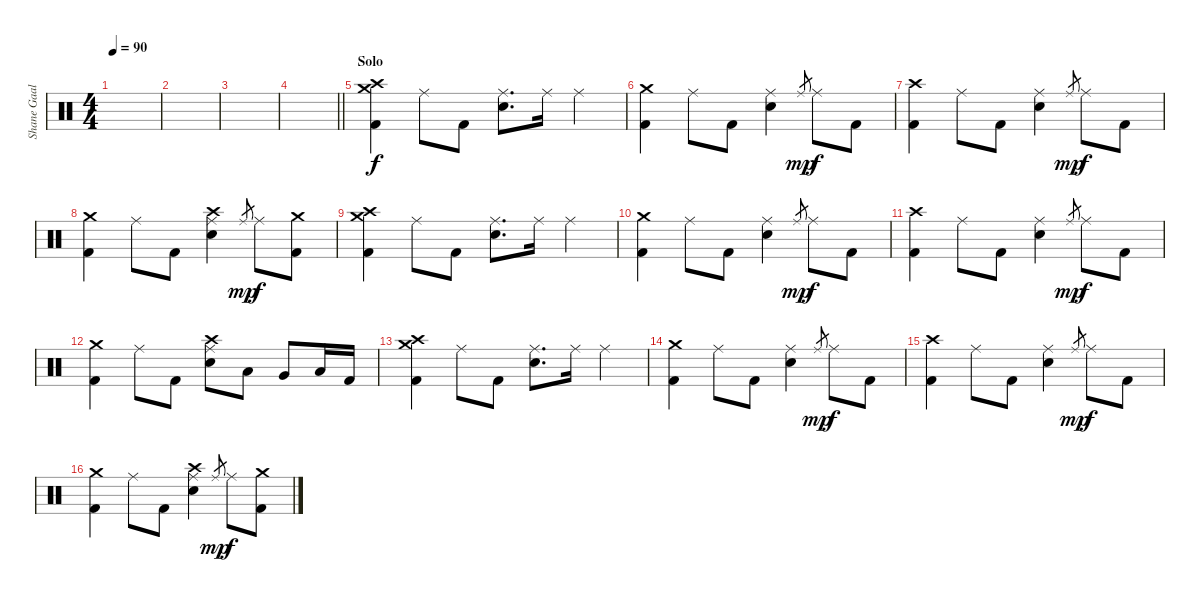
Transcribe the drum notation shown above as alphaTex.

\track ("Shane Gaalaas" "Shane Gaal") {instrument percussion}
\staff {score}
\articulation defaults
\ts (4 4)
\tempo 90
\clef neutral
\ks c
|
|
|
\barLineRight lightlight
|
\section ("" "Solo")
("Crash medium (hit)" "Crash high (hit)" "Kick (hit) 2").4 "Ride (middle)".8 "Kick (hit) 2".8 ("Ride (middle)" "Electric Snare (hit)").8{d} "Ride (middle)".16 "Ride (middle)".4 |
("Crash medium (hit)" "Kick (hit) 2").4 "Ride (middle)".8 "Kick (hit) 2".8 ("Ride (middle)" "Electric Snare (hit)").4 "Ride (middle)".8{gr dy mp} "Ride (middle)".8{dy f} "Kick (hit) 2".8 |
("Crash high (hit)" "Kick (hit) 2").4 "Ride (middle)".8 "Kick (hit) 2".8 ("Ride (middle)" "Electric Snare (hit)").4 "Ride (middle)".8{gr dy mp} "Ride (middle)".8{dy f} "Kick (hit) 2".8 |
("Crash medium (hit)" "Kick (hit) 2").4 "Ride (middle)".8 "Kick (hit) 2".8 ("Crash high (hit)" "Ride (middle)" "Electric Snare (hit)").4 "Ride (middle)".8{gr dy mp} "Ride (middle)".8{dy f} ("Crash medium (hit)" "Kick (hit) 2").8 |
("Crash medium (hit)" "Crash high (hit)" "Kick (hit) 2").4 "Ride (middle)".8 "Kick (hit) 2".8 ("Ride (middle)" "Electric Snare (hit)").8{d} "Ride (middle)".16 "Ride (middle)".4 |
("Crash medium (hit)" "Kick (hit) 2").4 "Ride (middle)".8 "Kick (hit) 2".8 ("Ride (middle)" "Electric Snare (hit)").4 "Ride (middle)".8{gr dy mp} "Ride (middle)".8{dy f} "Kick (hit) 2".8 |
("Crash high (hit)" "Kick (hit) 2").4 "Ride (middle)".8 "Kick (hit) 2".8 ("Ride (middle)" "Electric Snare (hit)").4 "Ride (middle)".8{gr dy mp} "Ride (middle)".8{dy f} "Kick (hit) 2".8 |
("Crash medium (hit)" "Kick (hit) 2").4 "Ride (middle)".8 "Kick (hit) 2".8 ("Crash high (hit)" "Ride (middle)" "Electric Snare (hit)").8 "Low Tom (hit)".8 "Very Low Tom (hit)".8 "Low Floor Tom (hit)".16 "Kick (hit) 2".16 |
("Crash medium (hit)" "Crash high (hit)" "Kick (hit) 2").4 "Ride (middle)".8 "Kick (hit) 2".8 ("Ride (middle)" "Electric Snare (hit)").8{d} "Ride (middle)".16 "Ride (middle)".4 |
("Crash medium (hit)" "Kick (hit) 2").4 "Ride (middle)".8 "Kick (hit) 2".8 ("Ride (middle)" "Electric Snare (hit)").4 "Ride (middle)".8{gr dy mp} "Ride (middle)".8{dy f} "Kick (hit) 2".8 |
("Crash high (hit)" "Kick (hit) 2").4 "Ride (middle)".8 "Kick (hit) 2".8 ("Ride (middle)" "Electric Snare (hit)").4 "Ride (middle)".8{gr dy mp} "Ride (middle)".8{dy f} "Kick (hit) 2".8 |
("Crash medium (hit)" "Kick (hit) 2").4 "Ride (middle)".8 "Kick (hit) 2".8 ("Crash high (hit)" "Ride (middle)" "Electric Snare (hit)").4 "Ride (middle)".8{gr dy mp} "Ride (middle)".8{dy f} ("Crash medium (hit)" "Kick (hit) 2").8
